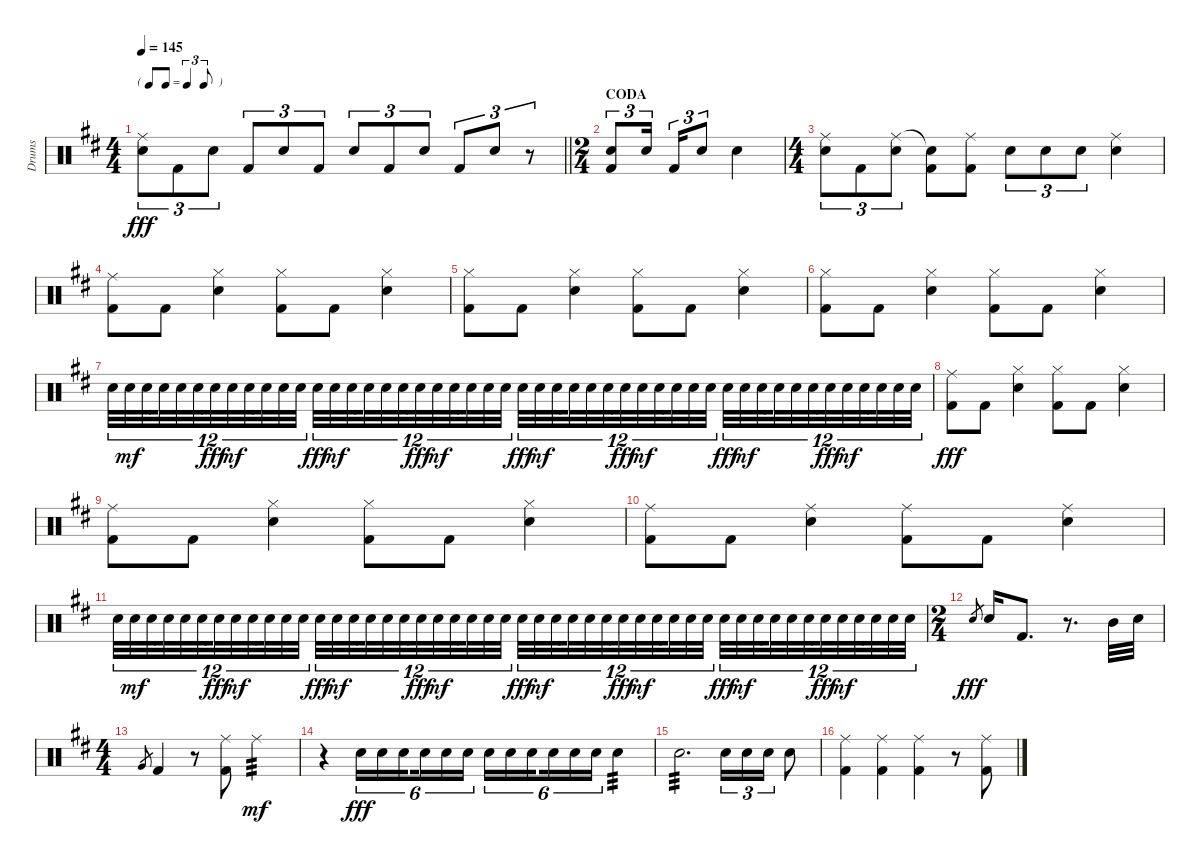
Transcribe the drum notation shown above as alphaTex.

\track ("Drums" "Drums") {instrument percussion}
\staff {score}
\articulation defaults
\ts (4 4)
\tf triplet8th
\tempo 145
\clef neutral
\barLineRight lightlight
\ks d
("Ride (middle)" "Snare (hit) 2").8{tu (3 2) dy fff} "Kick (hit) 2".8{tu (3 2)} "Snare (hit) 2".8{tu (3 2)} "Kick (hit) 2".8{tu (3 2)} "Snare (hit) 2".8{tu (3 2)} "Kick (hit) 2".8{tu (3 2)} "Snare (hit) 2".8{tu (3 2)} "Kick (hit) 2".8{tu (3 2)} "Snare (hit) 2".8{tu (3 2)} "Kick (hit) 2".8{tu (3 2)} "Snare (hit) 2".8{tu (3 2)} r.8{tu (3 2)} |
\ts (2 4)
\section ("" "CODA")
("Snare (hit) 2" "Kick (hit) 2").8{tu (3 2)} "Snare (hit) 2".16{tu (3 2) beam splitsecondary} "Kick (hit) 2".16{tu (3 2)} "Snare (hit) 2".8{tu (3 2)} "Snare (hit) 2".4 |
\ts (4 4)
("Ride (middle)" "Snare (hit) 2").8{tu (3 2)} "Kick (hit) 2".8{tu (3 2)} ("Ride (middle)" "Snare (hit) 2").8{tu (3 2)} ("Snare (hit)"{t} "Kick (hit) 2").8 ("Ride (middle)" "Kick (hit) 2").8 "Snare (hit) 2".8{tu (3 2)} "Snare (hit) 2".8{tu (3 2)} "Snare (hit) 2".8{tu (3 2)} ("Ride (middle)" "Snare (hit) 2").4 |
("Ride (middle)" "Kick (hit) 2").8 "Kick (hit) 2".8 ("Hi-Hat (closed)" "Snare (hit) 2").4 ("Hi-Hat (closed)" "Kick (hit) 2").8 "Kick (hit) 2".8 ("Hi-Hat (closed)" "Snare (hit) 2").4 |
("Hi-Hat (closed)" "Kick (hit) 2").8 "Kick (hit) 2".8 ("Hi-Hat (closed)" "Snare (hit) 2").4 ("Hi-Hat (closed)" "Kick (hit) 2").8 "Kick (hit) 2".8 ("Hi-Hat (closed)" "Snare (hit) 2").4 |
("Hi-Hat (closed)" "Kick (hit) 2").8 "Kick (hit) 2".8 ("Hi-Hat (closed)" "Snare (hit) 2").4 ("Hi-Hat (closed)" "Kick (hit) 2").8 "Kick (hit) 2".8 ("Hi-Hat (closed)" "Snare (hit) 2").4 |
"Snare (hit) 2".32{tu (12 8)} "Snare (hit) 2".32{tu (12 8) dy mf} "Snare (hit) 2".32{tu (12 8) beam splitsecondary} "Snare (hit) 2".32{tu (12 8)} "Snare (hit) 2".32{tu (12 8)} "Snare (hit) 2".32{tu (12 8) beam splitsecondary} "Snare (hit) 2".32{tu (12 8) dy fff} "Snare (hit) 2".32{tu (12 8) dy mf} "Snare (hit) 2".32{tu (12 8) beam splitsecondary} "Snare (hit) 2".32{tu (12 8)} "Snare (hit) 2".32{tu (12 8)} "Snare (hit) 2".32{tu (12 8)} "Snare (hit) 2".32{tu (12 8) dy fff} "Snare (hit) 2".32{tu (12 8) dy mf} "Snare (hit) 2".32{tu (12 8) beam splitsecondary} "Snare (hit) 2".32{tu (12 8)} "Snare (hit) 2".32{tu (12 8)} "Snare (hit) 2".32{tu (12 8) beam splitsecondary} "Snare (hit) 2".32{tu (12 8) dy fff} "Snare (hit) 2".32{tu (12 8) dy mf} "Snare (hit) 2".32{tu (12 8) beam splitsecondary} "Snare (hit) 2".32{tu (12 8)} "Snare (hit) 2".32{tu (12 8)} "Snare (hit) 2".32{tu (12 8)} "Snare (hit) 2".32{tu (12 8) dy fff} "Snare (hit) 2".32{tu (12 8) dy mf} "Snare (hit) 2".32{tu (12 8) beam splitsecondary} "Snare (hit) 2".32{tu (12 8)} "Snare (hit) 2".32{tu (12 8)} "Snare (hit) 2".32{tu (12 8) beam splitsecondary} "Snare (hit) 2".32{tu (12 8) dy fff} "Snare (hit) 2".32{tu (12 8) dy mf} "Snare (hit) 2".32{tu (12 8) beam splitsecondary} "Snare (hit) 2".32{tu (12 8)} "Snare (hit) 2".32{tu (12 8)} "Snare (hit) 2".32{tu (12 8)} "Snare (hit) 2".32{tu (12 8) dy fff} "Snare (hit) 2".32{tu (12 8) dy mf} "Snare (hit) 2".32{tu (12 8) beam splitsecondary} "Snare (hit) 2".32{tu (12 8)} "Snare (hit) 2".32{tu (12 8)} "Snare (hit) 2".32{tu (12 8) beam splitsecondary} "Snare (hit) 2".32{tu (12 8) dy fff} "Snare (hit) 2".32{tu (12 8) dy mf} "Snare (hit) 2".32{tu (12 8) beam splitsecondary} "Snare (hit) 2".32{tu (12 8)} "Snare (hit) 2".32{tu (12 8)} "Snare (hit) 2".32{tu (12 8)} |
("Ride (middle)" "Kick (hit) 2").8{dy fff} "Kick (hit) 2".8 ("Hi-Hat (closed)" "Snare (hit) 2").4 ("Hi-Hat (closed)" "Kick (hit) 2").8 "Kick (hit) 2".8 ("Hi-Hat (closed)" "Snare (hit) 2").4 |
("Ride (middle)" "Kick (hit) 2").8 "Kick (hit) 2".8 ("Hi-Hat (closed)" "Snare (hit) 2").4 ("Hi-Hat (closed)" "Kick (hit) 2").8 "Kick (hit) 2".8 ("Hi-Hat (closed)" "Snare (hit) 2").4 |
("Ride (middle)" "Kick (hit) 2").8 "Kick (hit) 2".8 ("Ride (middle)" "Snare (hit) 2").4 ("Ride (middle)" "Kick (hit) 2").8 "Kick (hit) 2".8 ("Ride (middle)" "Snare (hit) 2").4 |
"Snare (hit) 2".32{tu (12 8)} "Snare (hit) 2".32{tu (12 8) dy mf} "Snare (hit) 2".32{tu (12 8) beam splitsecondary} "Snare (hit) 2".32{tu (12 8)} "Snare (hit) 2".32{tu (12 8)} "Snare (hit) 2".32{tu (12 8) beam splitsecondary} "Snare (hit) 2".32{tu (12 8) dy fff} "Snare (hit) 2".32{tu (12 8) dy mf} "Snare (hit) 2".32{tu (12 8) beam splitsecondary} "Snare (hit) 2".32{tu (12 8)} "Snare (hit) 2".32{tu (12 8)} "Snare (hit) 2".32{tu (12 8)} "Snare (hit) 2".32{tu (12 8) dy fff} "Snare (hit) 2".32{tu (12 8) dy mf} "Snare (hit) 2".32{tu (12 8) beam splitsecondary} "Snare (hit) 2".32{tu (12 8)} "Snare (hit) 2".32{tu (12 8)} "Snare (hit) 2".32{tu (12 8) beam splitsecondary} "Snare (hit) 2".32{tu (12 8) dy fff} "Snare (hit) 2".32{tu (12 8) dy mf} "Snare (hit) 2".32{tu (12 8) beam splitsecondary} "Snare (hit) 2".32{tu (12 8)} "Snare (hit) 2".32{tu (12 8)} "Snare (hit) 2".32{tu (12 8)} "Snare (hit) 2".32{tu (12 8) dy fff} "Snare (hit) 2".32{tu (12 8) dy mf} "Snare (hit) 2".32{tu (12 8) beam splitsecondary} "Snare (hit) 2".32{tu (12 8)} "Snare (hit) 2".32{tu (12 8)} "Snare (hit) 2".32{tu (12 8) beam splitsecondary} "Snare (hit) 2".32{tu (12 8) dy fff} "Snare (hit) 2".32{tu (12 8) dy mf} "Snare (hit) 2".32{tu (12 8) beam splitsecondary} "Snare (hit) 2".32{tu (12 8)} "Snare (hit) 2".32{tu (12 8)} "Snare (hit) 2".32{tu (12 8)} "Snare (hit) 2".32{tu (12 8) dy fff} "Snare (hit) 2".32{tu (12 8) dy mf} "Snare (hit) 2".32{tu (12 8) beam splitsecondary} "Snare (hit) 2".32{tu (12 8)} "Snare (hit) 2".32{tu (12 8)} "Snare (hit) 2".32{tu (12 8) beam splitsecondary} "Snare (hit) 2".32{tu (12 8) dy fff} "Snare (hit) 2".32{tu (12 8) dy mf} "Snare (hit) 2".32{tu (12 8) beam splitsecondary} "Snare (hit) 2".32{tu (12 8)} "Snare (hit) 2".32{tu (12 8)} "Snare (hit) 2".32{tu (12 8)} |
\ts (2 4)
"Snare (hit) 2".8{gr dy fff} "Snare (hit) 2".16 "Kick (hit) 2".8{d} r.8{d} "Mid Tom (hit)".32 "Snare (hit) 2".32 |
\ts (4 4)
"Very Low Tom (hit)".8{gr} "Kick (hit) 2".4 r.8 ("Ride (middle)" "Kick (hit) 2").8 "Ride (middle)".2{tp 3 dy mf} |
r.4 "Snare (hit) 2".16{tu (6 4) dy fff} "Snare (hit) 2".16{tu (6 4)} "Snare (hit) 2".16{tu (6 4) beam splitsecondary} "Snare (hit) 2".16{tu (6 4)} "Snare (hit) 2".16{tu (6 4)} "Snare (hit) 2".16{tu (6 4)} "Snare (hit) 2".16{tu (6 4)} "Snare (hit) 2".16{tu (6 4)} "Snare (hit) 2".16{tu (6 4) beam splitsecondary} "Snare (hit) 2".16{tu (6 4)} "Snare (hit) 2".16{tu (6 4)} "Snare (hit) 2".16{tu (6 4)} "Snare (hit) 2".4{tp 3} |
"Snare (hit) 2".2{d tp 3} "Snare (hit) 2".16{tu (3 2)} "Snare (hit) 2".16{tu (3 2)} "Snare (hit) 2".16{tu (3 2)} "Snare (hit) 2".8 |
("Ride (middle)" "Kick (hit) 2").4 ("Ride (middle)" "Kick (hit) 2").4 ("Ride (middle)" "Kick (hit) 2").4 r.8 ("Ride (middle)" "Kick (hit) 2").8
